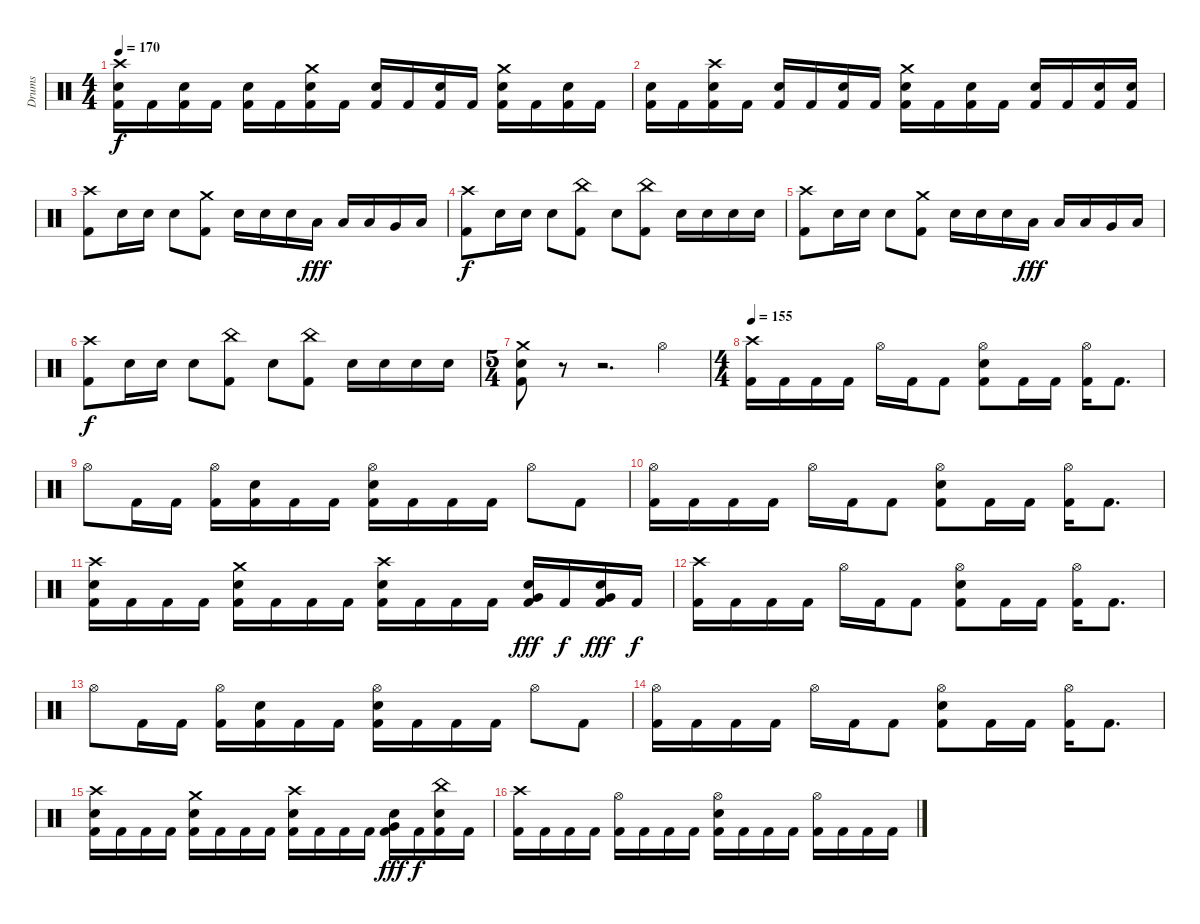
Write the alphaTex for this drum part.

\track ("Drums" "Drums") {instrument percussion}
\staff {score}
\articulation defaults
\ts (4 4)
\tempo 170
\clef neutral
\ks c
("Crash high (hit)" "Electric Snare (hit)" "Kick (hit) 2").16{dy f} "Kick (hit) 2".16 ("Electric Snare (hit)" "Kick (hit) 2").16 "Kick (hit) 2".16 ("Electric Snare (hit)" "Kick (hit) 2").16 "Kick (hit) 2".16 ("Crash medium (hit)" "Electric Snare (hit)" "Kick (hit) 2").16 "Kick (hit) 2".16 ("Electric Snare (hit)" "Kick (hit) 2").16 "Kick (hit) 2".16 ("Electric Snare (hit)" "Kick (hit) 2").16 "Kick (hit) 2".16 ("Crash medium (hit)" "Electric Snare (hit)" "Kick (hit) 2").16 "Kick (hit) 2".16 ("Electric Snare (hit)" "Kick (hit) 2").16 "Kick (hit) 2".16 |
("Electric Snare (hit)" "Kick (hit) 2").16 "Kick (hit) 2".16 ("Crash high (hit)" "Electric Snare (hit)" "Kick (hit) 2").16 "Kick (hit) 2".16 ("Electric Snare (hit)" "Kick (hit) 2").16 "Kick (hit) 2".16 ("Electric Snare (hit)" "Kick (hit) 2").16 "Kick (hit) 2".16 ("Crash medium (hit)" "Electric Snare (hit)" "Kick (hit) 2").16 "Kick (hit) 2".16 ("Electric Snare (hit)" "Kick (hit) 2").16 "Kick (hit) 2".16 ("Electric Snare (hit)" "Kick (hit) 2").16 "Kick (hit) 2".16 ("Electric Snare (hit)" "Kick (hit) 2").16 ("Electric Snare (hit)" "Kick (hit) 2").16 |
("Crash high (hit)" "Kick (hit) 2").8 "Electric Snare (hit)".16 "Electric Snare (hit)".16 "Electric Snare (hit)".8 ("Crash medium (hit)" "Kick (hit) 2").8 "Electric Snare (hit)".16 "Electric Snare (hit)".16 "Electric Snare (hit)".16 "Low Tom (hit)".16{dy fff} "Low Tom (hit)".16 "Low Tom (hit)".16 "Very Low Tom (hit)".16 "Low Floor Tom (hit)".16 |
("Crash high (hit)" "Kick (hit) 2").8{dy f} "Electric Snare (hit)".16 "Electric Snare (hit)".16 "Electric Snare (hit)".8 ("China (hit)" "Kick (hit) 2").8 "Electric Snare (hit)".8 ("China (hit)" "Kick (hit) 2").8 "Electric Snare (hit)".16 "Electric Snare (hit)".16 "Electric Snare (hit)".16 "Electric Snare (hit)".16 |
("Crash high (hit)" "Kick (hit) 2").8 "Electric Snare (hit)".16 "Electric Snare (hit)".16 "Electric Snare (hit)".8 ("Crash medium (hit)" "Kick (hit) 2").8 "Electric Snare (hit)".16 "Electric Snare (hit)".16 "Electric Snare (hit)".16 "Low Tom (hit)".16{dy fff} "Low Tom (hit)".16 "Low Tom (hit)".16 "Very Low Tom (hit)".16 "Low Floor Tom (hit)".16 |
("Crash high (hit)" "Kick (hit) 2").8{dy f} "Electric Snare (hit)".16 "Electric Snare (hit)".16 "Electric Snare (hit)".8 ("China (hit)" "Kick (hit) 2").8 "Electric Snare (hit)".8 ("China (hit)" "Kick (hit) 2").8 "Electric Snare (hit)".16 "Electric Snare (hit)".16 "Electric Snare (hit)".16 "Electric Snare (hit)".16 |
\ts (5 4)
("Crash medium (hit)" "Electric Snare (hit)" "Kick (hit) 2").8 r.8 r.2{d} "Hi-Hat (open)".4 |
\ts (4 4)
\tempo 155
("Crash high (hit)" "Kick (hit) 2").16 "Kick (hit) 2".16 "Kick (hit) 2".16 "Kick (hit) 2".16 "Hi-Hat (open)".16 "Kick (hit) 2".16 "Kick (hit) 2".8 ("Hi-Hat (open)" "Electric Snare (hit)" "Kick (hit) 2").8 "Kick (hit) 2".16 "Kick (hit) 2".16 ("Hi-Hat (open)" "Kick (hit) 2").16 "Kick (hit) 2".8{d} |
"Hi-Hat (open)".8 "Kick (hit) 2".16 "Kick (hit) 2".16 ("Hi-Hat (open)" "Kick (hit) 2").16 ("Electric Snare (hit)" "Kick (hit) 2").16 "Kick (hit) 2".16 "Kick (hit) 2".16 ("Hi-Hat (open)" "Electric Snare (hit)" "Kick (hit) 2").16 "Kick (hit) 2".16 "Kick (hit) 2".16 "Kick (hit) 2".16 "Hi-Hat (open)".8 "Kick (hit) 2".8 |
("Hi-Hat (open)" "Kick (hit) 2").16 "Kick (hit) 2".16 "Kick (hit) 2".16 "Kick (hit) 2".16 "Hi-Hat (open)".16 "Kick (hit) 2".16 "Kick (hit) 2".8 ("Hi-Hat (open)" "Electric Snare (hit)" "Kick (hit) 2").8 "Kick (hit) 2".16 "Kick (hit) 2".16 ("Hi-Hat (open)" "Kick (hit) 2").16 "Kick (hit) 2".8{d} |
("Crash high (hit)" "Electric Snare (hit)" "Kick (hit) 2").16 "Kick (hit) 2".16 "Kick (hit) 2".16 "Kick (hit) 2".16 ("Crash medium (hit)" "Electric Snare (hit)" "Kick (hit) 2").16 "Kick (hit) 2".16 "Kick (hit) 2".16 "Kick (hit) 2".16 ("Crash high (hit)" "Electric Snare (hit)" "Kick (hit) 2").16 "Kick (hit) 2".16 "Kick (hit) 2".16 "Kick (hit) 2".16 ("Electric Snare (hit)" "Very Low Tom (hit)" "Kick (hit) 2").16{dy fff} "Kick (hit) 2".16{dy f} ("Electric Snare (hit)" "Very Low Tom (hit)" "Kick (hit) 2").16{dy fff} "Kick (hit) 2".16{dy f} |
("Crash high (hit)" "Kick (hit) 2").16 "Kick (hit) 2".16 "Kick (hit) 2".16 "Kick (hit) 2".16 "Hi-Hat (open)".16 "Kick (hit) 2".16 "Kick (hit) 2".8 ("Hi-Hat (open)" "Electric Snare (hit)" "Kick (hit) 2").8 "Kick (hit) 2".16 "Kick (hit) 2".16 ("Hi-Hat (open)" "Kick (hit) 2").16 "Kick (hit) 2".8{d} |
"Hi-Hat (open)".8 "Kick (hit) 2".16 "Kick (hit) 2".16 ("Hi-Hat (open)" "Kick (hit) 2").16 ("Electric Snare (hit)" "Kick (hit) 2").16 "Kick (hit) 2".16 "Kick (hit) 2".16 ("Hi-Hat (open)" "Electric Snare (hit)" "Kick (hit) 2").16 "Kick (hit) 2".16 "Kick (hit) 2".16 "Kick (hit) 2".16 "Hi-Hat (open)".8 "Kick (hit) 2".8 |
("Hi-Hat (open)" "Kick (hit) 2").16 "Kick (hit) 2".16 "Kick (hit) 2".16 "Kick (hit) 2".16 "Hi-Hat (open)".16 "Kick (hit) 2".16 "Kick (hit) 2".8 ("Hi-Hat (open)" "Electric Snare (hit)" "Kick (hit) 2").8 "Kick (hit) 2".16 "Kick (hit) 2".16 ("Hi-Hat (open)" "Kick (hit) 2").16 "Kick (hit) 2".8{d} |
("Crash high (hit)" "Electric Snare (hit)" "Kick (hit) 2").16 "Kick (hit) 2".16 "Kick (hit) 2".16 "Kick (hit) 2".16 ("Crash medium (hit)" "Electric Snare (hit)" "Kick (hit) 2").16 "Kick (hit) 2".16 "Kick (hit) 2".16 "Kick (hit) 2".16 ("Crash high (hit)" "Electric Snare (hit)" "Kick (hit) 2").16 "Kick (hit) 2".16 "Kick (hit) 2".16 "Kick (hit) 2".16 ("Electric Snare (hit)" "Very Low Tom (hit)" "Kick (hit) 2").16{dy fff} "Kick (hit) 2".16{dy f} ("China (hit)" "Electric Snare (hit)" "Kick (hit) 2").16 "Kick (hit) 2".16 |
("Crash high (hit)" "Kick (hit) 2").16 "Kick (hit) 2".16 "Kick (hit) 2".16 "Kick (hit) 2".16 ("Hi-Hat (open)" "Kick (hit) 2").16 "Kick (hit) 2".16 "Kick (hit) 2".16 "Kick (hit) 2".16 ("Hi-Hat (open)" "Electric Snare (hit)" "Kick (hit) 2").16 "Kick (hit) 2".16 "Kick (hit) 2".16 "Kick (hit) 2".16 ("Hi-Hat (open)" "Kick (hit) 2").16 "Kick (hit) 2".16 "Kick (hit) 2".16 "Kick (hit) 2".16
